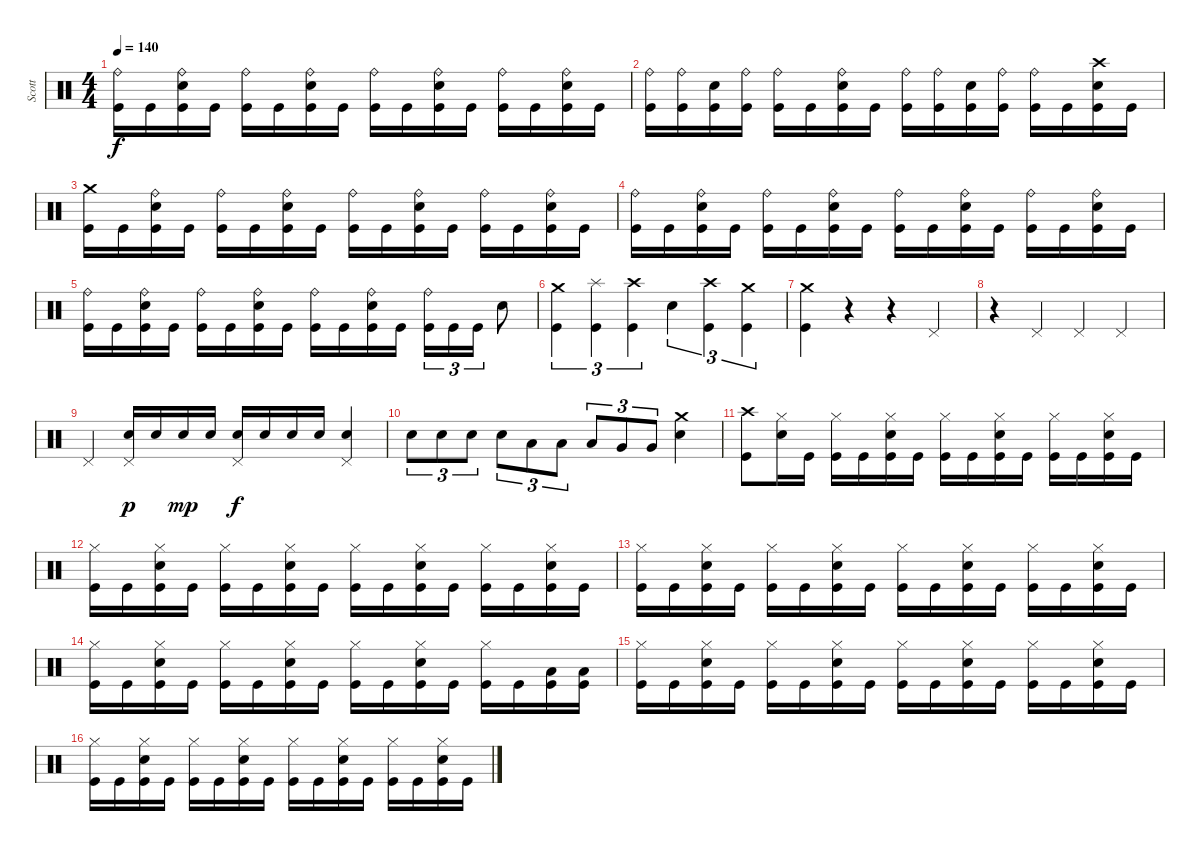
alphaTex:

\track ("Scott" "Scott") {instrument percussion}
\staff {score}
\articulation defaults
\ts (4 4)
\tempo 140
\clef neutral
\ks c
("Kick (hit)" "Ride (bell)").16{dy f} "Kick (hit)".16 ("Kick (hit)" "Snare (hit) 2" "Ride (bell)").16 "Kick (hit)".16 ("Kick (hit)" "Ride (bell)").16 "Kick (hit)".16 ("Kick (hit)" "Snare (hit) 2" "Ride (bell)").16 "Kick (hit)".16 ("Kick (hit)" "Ride (bell)").16 "Kick (hit)".16 ("Kick (hit)" "Snare (hit) 2" "Ride (bell)").16 "Kick (hit)".16 ("Kick (hit)" "Ride (bell)").16 "Kick (hit)".16 ("Kick (hit)" "Snare (hit) 2" "Ride (bell)").16 "Kick (hit)".16 |
("Kick (hit)" "Ride (bell)").16 ("Kick (hit)" "Ride (bell)").16 ("Kick (hit)" "Snare (hit) 2").16 ("Kick (hit)" "Ride (bell)").16 ("Kick (hit)" "Ride (bell)").16 "Kick (hit)".16 ("Kick (hit)" "Snare (hit) 2" "Ride (bell)").16 "Kick (hit)".16 ("Kick (hit)" "Ride (bell)").16 ("Kick (hit)" "Ride (bell)").16 ("Kick (hit)" "Snare (hit) 2").16 ("Kick (hit)" "Ride (bell)").16 ("Kick (hit)" "Ride (bell)").16 "Kick (hit)".16 ("Kick (hit)" "Snare (hit) 2" "Crash high (hit)").16 "Kick (hit)".16 |
("Kick (hit)" "Crash medium (hit)").16 "Kick (hit)".16 ("Kick (hit)" "Snare (hit) 2" "Ride (bell)").16 "Kick (hit)".16 ("Kick (hit)" "Ride (bell)").16 "Kick (hit)".16 ("Kick (hit)" "Snare (hit) 2" "Ride (bell)").16 "Kick (hit)".16 ("Kick (hit)" "Ride (bell)").16 "Kick (hit)".16 ("Kick (hit)" "Snare (hit) 2" "Ride (bell)").16 "Kick (hit)".16 ("Kick (hit)" "Ride (bell)").16 "Kick (hit)".16 ("Kick (hit)" "Snare (hit) 2" "Ride (bell)").16 "Kick (hit)".16 |
("Kick (hit)" "Ride (bell)").16 "Kick (hit)".16 ("Kick (hit)" "Snare (hit) 2" "Ride (bell)").16 "Kick (hit)".16 ("Kick (hit)" "Ride (bell)").16 "Kick (hit)".16 ("Kick (hit)" "Snare (hit) 2" "Ride (bell)").16 "Kick (hit)".16 ("Kick (hit)" "Ride (bell)").16 "Kick (hit)".16 ("Kick (hit)" "Snare (hit) 2" "Ride (bell)").16 "Kick (hit)".16 ("Kick (hit)" "Ride (bell)").16 "Kick (hit)".16 ("Kick (hit)" "Snare (hit) 2" "Ride (bell)").16 "Kick (hit)".16 |
("Kick (hit)" "Ride (bell)").16 "Kick (hit)".16 ("Kick (hit)" "Snare (hit) 2" "Ride (bell)").16 "Kick (hit)".16 ("Kick (hit)" "Ride (bell)").16 "Kick (hit)".16 ("Kick (hit)" "Snare (hit) 2" "Ride (bell)").16 "Kick (hit)".16 ("Kick (hit)" "Ride (bell)").16 "Kick (hit)".16 ("Kick (hit)" "Snare (hit) 2" "Ride (bell)").16 "Kick (hit)".16 ("Kick (hit)" "Ride (bell)").16{tu (3 2)} "Kick (hit)".16{tu (3 2)} "Kick (hit)".16{tu (3 2)} "Snare (hit) 2".8 |
("Kick (hit)" "Crash medium (hit)").4{tu (3 2)} ("Kick (hit)" "Splash (hit)").4{tu (3 2)} ("Kick (hit)" "Crash high (hit)").4{tu (3 2)} "Snare (hit) 2".4{tu (3 2)} ("Kick (hit)" "Crash high (hit)").4{tu (3 2)} ("Kick (hit)" "Crash medium (hit)").4{tu (3 2)} |
("Kick (hit)" "Crash medium (hit)").4 r.4 r.4 "Pedal Hi-Hat (hit)".4 |
r.4 "Pedal Hi-Hat (hit)".4 "Pedal Hi-Hat (hit)".4 "Pedal Hi-Hat (hit)".4 |
"Pedal Hi-Hat (hit)".4 ("Snare (hit) 2" "Pedal Hi-Hat (hit)").16{dy p} "Snare (hit) 2".16 "Snare (hit) 2".16{dy mp} "Snare (hit) 2".16 ("Snare (hit) 2" "Pedal Hi-Hat (hit)").16{dy f} "Snare (hit) 2".16 "Snare (hit) 2".16 "Snare (hit) 2".16 ("Snare (hit) 2" "Pedal Hi-Hat (hit)").4 |
"Snare (hit) 2".8{tu (3 2)} "Snare (hit) 2".8{tu (3 2)} "Snare (hit) 2".8{tu (3 2)} "Snare (hit) 2".8{tu (3 2)} "Low Tom (hit)".8{tu (3 2)} "Low Tom (hit)".8{tu (3 2)} "Low Tom (hit)".8{tu (3 2)} "Very Low Tom (hit)".8{tu (3 2)} "Very Low Tom (hit)".8{tu (3 2)} ("Snare (hit) 2" "Crash medium (hit)").4 |
("Kick (hit)" "Crash high (hit)").8 ("Snare (hit) 2" "Hi-Hat (closed)").16 "Kick (hit)".16 ("Kick (hit)" "Hi-Hat (closed)").16 "Kick (hit)".16 ("Kick (hit)" "Snare (hit) 2" "Hi-Hat (closed)").16 "Kick (hit)".16 ("Kick (hit)" "Hi-Hat (closed)").16 "Kick (hit)".16 ("Kick (hit)" "Snare (hit) 2" "Hi-Hat (closed)").16 "Kick (hit)".16 ("Kick (hit)" "Hi-Hat (closed)").16 "Kick (hit)".16 ("Kick (hit)" "Snare (hit) 2" "Hi-Hat (closed)").16 "Kick (hit)".16 |
("Kick (hit)" "Hi-Hat (closed)").16 "Kick (hit)".16 ("Kick (hit)" "Snare (hit) 2" "Hi-Hat (closed)").16 "Kick (hit)".16 ("Kick (hit)" "Hi-Hat (closed)").16 "Kick (hit)".16 ("Kick (hit)" "Snare (hit) 2" "Hi-Hat (closed)").16 "Kick (hit)".16 ("Kick (hit)" "Hi-Hat (closed)").16 "Kick (hit)".16 ("Kick (hit)" "Snare (hit) 2" "Hi-Hat (closed)").16 "Kick (hit)".16 ("Kick (hit)" "Hi-Hat (closed)").16 "Kick (hit)".16 ("Kick (hit)" "Snare (hit) 2" "Hi-Hat (closed)").16 "Kick (hit)".16 |
("Kick (hit)" "Hi-Hat (closed)").16 "Kick (hit)".16 ("Kick (hit)" "Snare (hit) 2" "Hi-Hat (closed)").16 "Kick (hit)".16 ("Kick (hit)" "Hi-Hat (closed)").16 "Kick (hit)".16 ("Kick (hit)" "Snare (hit) 2" "Hi-Hat (closed)").16 "Kick (hit)".16 ("Kick (hit)" "Hi-Hat (closed)").16 "Kick (hit)".16 ("Kick (hit)" "Snare (hit) 2" "Hi-Hat (closed)").16 "Kick (hit)".16 ("Kick (hit)" "Hi-Hat (closed)").16 "Kick (hit)".16 ("Kick (hit)" "Snare (hit) 2" "Hi-Hat (closed)").16 "Kick (hit)".16 |
("Kick (hit)" "Hi-Hat (closed)").16 "Kick (hit)".16 ("Kick (hit)" "Snare (hit) 2" "Hi-Hat (closed)").16 "Kick (hit)".16 ("Kick (hit)" "Hi-Hat (closed)").16 "Kick (hit)".16 ("Kick (hit)" "Snare (hit) 2" "Hi-Hat (closed)").16 "Kick (hit)".16 ("Kick (hit)" "Hi-Hat (closed)").16 "Kick (hit)".16 ("Kick (hit)" "Snare (hit) 2" "Hi-Hat (closed)").16 "Kick (hit)".16 ("Kick (hit)" "Hi-Hat (closed)").16 "Kick (hit)".16 ("Kick (hit)" "Low Tom (hit)").16 ("Kick (hit)" "Low Tom (hit)").16 |
("Kick (hit)" "Hi-Hat (closed)").16 "Kick (hit)".16 ("Kick (hit)" "Snare (hit) 2" "Hi-Hat (closed)").16 "Kick (hit)".16 ("Kick (hit)" "Hi-Hat (closed)").16 "Kick (hit)".16 ("Kick (hit)" "Snare (hit) 2" "Hi-Hat (closed)").16 "Kick (hit)".16 ("Kick (hit)" "Hi-Hat (closed)").16 "Kick (hit)".16 ("Kick (hit)" "Snare (hit) 2" "Hi-Hat (closed)").16 "Kick (hit)".16 ("Kick (hit)" "Hi-Hat (closed)").16 "Kick (hit)".16 ("Kick (hit)" "Snare (hit) 2" "Hi-Hat (closed)").16 "Kick (hit)".16 |
("Kick (hit)" "Hi-Hat (closed)").16 "Kick (hit)".16 ("Kick (hit)" "Snare (hit) 2" "Hi-Hat (closed)").16 "Kick (hit)".16 ("Kick (hit)" "Hi-Hat (closed)").16 "Kick (hit)".16 ("Kick (hit)" "Snare (hit) 2" "Hi-Hat (closed)").16 "Kick (hit)".16 ("Kick (hit)" "Hi-Hat (closed)").16 "Kick (hit)".16 ("Kick (hit)" "Snare (hit) 2" "Hi-Hat (closed)").16 "Kick (hit)".16 ("Kick (hit)" "Hi-Hat (closed)").16 "Kick (hit)".16 ("Kick (hit)" "Snare (hit) 2" "Hi-Hat (closed)").16 "Kick (hit)".16
